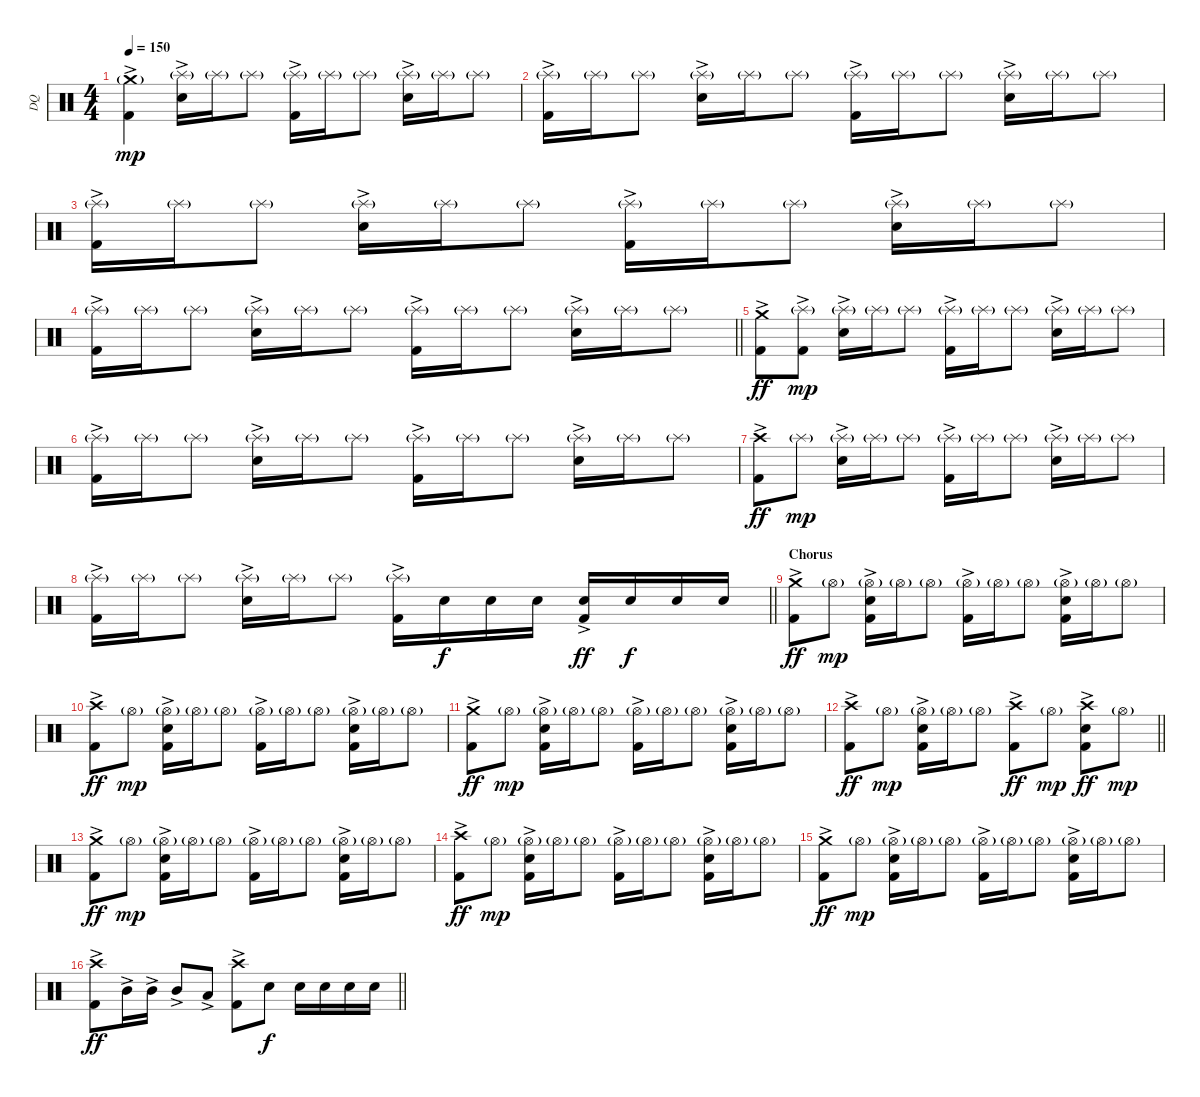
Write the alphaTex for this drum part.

\track ("DQ" "DQ") {instrument percussion}
\staff {score}
\articulation defaults
\ts (4 4)
\section ("" "")
\tempo 150
\clef neutral
\ks c
("Kick (hit) 2"{ac} "Crash medium (hit)"{g}).4{dy mp} ("Snare (hit) 2"{ac} "Splash (hit)"{g}).16 "Splash (hit)"{g}.16 "Splash (hit)"{g}.8 ("Kick (hit) 2"{ac} "Splash (hit)"{g}).16 "Splash (hit)"{g}.16 "Splash (hit)"{g}.8 ("Snare (hit) 2"{ac} "Splash (hit)"{g}).16 "Splash (hit)"{g}.16 "Splash (hit)"{g}.8 |
("Kick (hit) 2"{ac} "Splash (hit)"{g}).16 "Splash (hit)"{g}.16 "Splash (hit)"{g}.8 ("Snare (hit) 2"{ac} "Splash (hit)"{g}).16 "Splash (hit)"{g}.16 "Splash (hit)"{g}.8 ("Kick (hit) 2"{ac} "Splash (hit)"{g}).16 "Splash (hit)"{g}.16 "Splash (hit)"{g}.8 ("Snare (hit) 2"{ac} "Splash (hit)"{g}).16 "Splash (hit)"{g}.16 "Splash (hit)"{g}.8 |
("Kick (hit) 2"{ac} "Splash (hit)"{g}).16 "Splash (hit)"{g}.16 "Splash (hit)"{g}.8 ("Snare (hit) 2"{ac} "Splash (hit)"{g}).16 "Splash (hit)"{g}.16 "Splash (hit)"{g}.8 ("Kick (hit) 2"{ac} "Splash (hit)"{g}).16 "Splash (hit)"{g}.16 "Splash (hit)"{g}.8 ("Snare (hit) 2"{ac} "Splash (hit)"{g}).16 "Splash (hit)"{g}.16 "Splash (hit)"{g}.8 |
\barLineRight lightlight
("Kick (hit) 2"{ac} "Splash (hit)"{g}).16 "Splash (hit)"{g}.16 "Splash (hit)"{g}.8 ("Snare (hit) 2"{ac} "Splash (hit)"{g}).16 "Splash (hit)"{g}.16 "Splash (hit)"{g}.8 ("Kick (hit) 2"{ac} "Splash (hit)"{g}).16 "Splash (hit)"{g}.16 "Splash (hit)"{g}.8 ("Snare (hit) 2"{ac} "Splash (hit)"{g}).16 "Splash (hit)"{g}.16 "Splash (hit)"{g}.8 |
\section ("" "")
("Kick (hit) 2"{ac} "Crash medium (hit)").8{dy ff} ("Kick (hit) 2"{ac} "Splash (hit)"{g}).8{dy mp} ("Snare (hit) 2"{ac} "Splash (hit)"{g}).16 "Splash (hit)"{g}.16 "Splash (hit)"{g}.8 ("Kick (hit) 2"{ac} "Splash (hit)"{g}).16 "Splash (hit)"{g}.16 "Splash (hit)"{g}.8 ("Snare (hit) 2"{ac} "Splash (hit)"{g}).16 "Splash (hit)"{g}.16 "Splash (hit)"{g}.8 |
("Kick (hit) 2"{ac} "Splash (hit)"{g}).16 "Splash (hit)"{g}.16 "Splash (hit)"{g}.8 ("Snare (hit) 2"{ac} "Splash (hit)"{g}).16 "Splash (hit)"{g}.16 "Splash (hit)"{g}.8 ("Kick (hit) 2"{ac} "Splash (hit)"{g}).16 "Splash (hit)"{g}.16 "Splash (hit)"{g}.8 ("Snare (hit) 2"{ac} "Splash (hit)"{g}).16 "Splash (hit)"{g}.16 "Splash (hit)"{g}.8 |
("Kick (hit) 2"{ac} "Crash high (hit)").8{dy ff} "Splash (hit)"{g}.8{dy mp} ("Snare (hit) 2"{ac} "Splash (hit)"{g}).16 "Splash (hit)"{g}.16 "Splash (hit)"{g}.8 ("Kick (hit) 2"{ac} "Splash (hit)"{g}).16 "Splash (hit)"{g}.16 "Splash (hit)"{g}.8 ("Snare (hit) 2"{ac} "Splash (hit)"{g}).16 "Splash (hit)"{g}.16 "Splash (hit)"{g}.8 |
\barLineRight lightlight
("Kick (hit) 2"{ac} "Splash (hit)"{g}).16 "Splash (hit)"{g}.16 "Splash (hit)"{g}.8 ("Snare (hit) 2"{ac} "Splash (hit)"{g}).16 "Splash (hit)"{g}.16 "Splash (hit)"{g}.8 ("Kick (hit) 2"{ac} "Splash (hit)"{g}).16 "Snare (hit) 2".16{dy f} "Snare (hit) 2".16 "Snare (hit) 2".16 ("Kick (hit) 2"{ac} "Snare (hit) 2").16{dy ff} "Snare (hit) 2".16{dy f} "Snare (hit) 2".16 "Snare (hit) 2".16 |
\section ("" "Chorus")
("Kick (hit) 2"{ac} "Crash medium (hit)").8{dy ff} "Hi-Hat (open)"{g}.8{dy mp} ("Kick (hit) 2"{ac} "Snare (hit) 2"{ac} "Hi-Hat (open)"{g}).16 "Hi-Hat (open)"{g}.16 "Hi-Hat (open)"{g}.8 ("Kick (hit) 2"{ac} "Hi-Hat (open)"{g}).16 "Hi-Hat (open)"{g}.16 "Hi-Hat (open)"{g}.8 ("Kick (hit) 2"{ac} "Snare (hit) 2"{ac} "Hi-Hat (open)"{g}).16 "Hi-Hat (open)"{g}.16 "Hi-Hat (open)"{g}.8 |
("Kick (hit) 2"{ac} "Crash high (hit)").8{dy ff} "Hi-Hat (open)"{g}.8{dy mp} ("Kick (hit) 2"{ac} "Snare (hit) 2"{ac} "Hi-Hat (open)"{g}).16 "Hi-Hat (open)"{g}.16 "Hi-Hat (open)"{g}.8 ("Kick (hit) 2"{ac} "Hi-Hat (open)"{g}).16 "Hi-Hat (open)"{g}.16 "Hi-Hat (open)"{g}.8 ("Kick (hit) 2"{ac} "Snare (hit) 2"{ac} "Hi-Hat (open)"{g}).16 "Hi-Hat (open)"{g}.16 "Hi-Hat (open)"{g}.8 |
("Kick (hit) 2"{ac} "Crash medium (hit)").8{dy ff} "Hi-Hat (open)"{g}.8{dy mp} ("Kick (hit) 2"{ac} "Snare (hit) 2"{ac} "Hi-Hat (open)"{g}).16 "Hi-Hat (open)"{g}.16 "Hi-Hat (open)"{g}.8 ("Kick (hit) 2"{ac} "Hi-Hat (open)"{g}).16 "Hi-Hat (open)"{g}.16 "Hi-Hat (open)"{g}.8 ("Kick (hit) 2"{ac} "Snare (hit) 2"{ac} "Hi-Hat (open)"{g}).16 "Hi-Hat (open)"{g}.16 "Hi-Hat (open)"{g}.8 |
\barLineRight lightlight
("Kick (hit) 2"{ac} "Crash high (hit)").8{dy ff} "Hi-Hat (open)"{g}.8{dy mp} ("Kick (hit) 2"{ac} "Snare (hit) 2"{ac} "Hi-Hat (open)"{g}).16 "Hi-Hat (open)"{g}.16 "Hi-Hat (open)"{g}.8 ("Kick (hit) 2"{ac} "Crash high (hit)").8{dy ff} "Hi-Hat (open)"{g}.8{dy mp} ("Kick (hit) 2"{ac} "Snare (hit) 2"{ac} "Crash high (hit)").8{dy ff} "Hi-Hat (open)"{g}.8{dy mp} |
\section ("" "")
("Kick (hit) 2"{ac} "Crash medium (hit)").8{dy ff} "Hi-Hat (open)"{g}.8{dy mp} ("Kick (hit) 2"{ac} "Snare (hit) 2"{ac} "Hi-Hat (open)"{g}).16 "Hi-Hat (open)"{g}.16 "Hi-Hat (open)"{g}.8 ("Kick (hit) 2"{ac} "Hi-Hat (open)"{g}).16 "Hi-Hat (open)"{g}.16 "Hi-Hat (open)"{g}.8 ("Kick (hit) 2"{ac} "Snare (hit) 2"{ac} "Hi-Hat (open)"{g}).16 "Hi-Hat (open)"{g}.16 "Hi-Hat (open)"{g}.8 |
("Kick (hit) 2"{ac} "Crash high (hit)").8{dy ff} "Hi-Hat (open)"{g}.8{dy mp} ("Kick (hit) 2"{ac} "Snare (hit) 2"{ac} "Hi-Hat (open)"{g}).16 "Hi-Hat (open)"{g}.16 "Hi-Hat (open)"{g}.8 ("Kick (hit) 2"{ac} "Hi-Hat (open)"{g}).16 "Hi-Hat (open)"{g}.16 "Hi-Hat (open)"{g}.8 ("Kick (hit) 2"{ac} "Snare (hit) 2"{ac} "Hi-Hat (open)"{g}).16 "Hi-Hat (open)"{g}.16 "Hi-Hat (open)"{g}.8 |
("Kick (hit) 2"{ac} "Crash medium (hit)").8{dy ff} "Hi-Hat (open)"{g}.8{dy mp} ("Kick (hit) 2"{ac} "Snare (hit) 2"{ac} "Hi-Hat (open)"{g}).16 "Hi-Hat (open)"{g}.16 "Hi-Hat (open)"{g}.8 ("Kick (hit) 2"{ac} "Hi-Hat (open)"{g}).16 "Hi-Hat (open)"{g}.16 "Hi-Hat (open)"{g}.8 ("Kick (hit) 2"{ac} "Snare (hit) 2"{ac} "Hi-Hat (open)"{g}).16 "Hi-Hat (open)"{g}.16 "Hi-Hat (open)"{g}.8 |
\barLineRight lightlight
("Kick (hit) 2"{ac} "Crash high (hit)").8{dy ff} "Mid Tom (hit)"{ac}.16 "Mid Tom (hit)"{ac}.16 "Mid Tom (hit)"{ac}.8 "Low Tom (hit)"{ac}.8 ("Kick (hit) 2"{ac} "Crash high (hit)").8 "Snare (hit) 2".8{dy f} "Snare (hit) 2".16 "Snare (hit) 2".16 "Snare (hit) 2".16 "Snare (hit) 2".16
